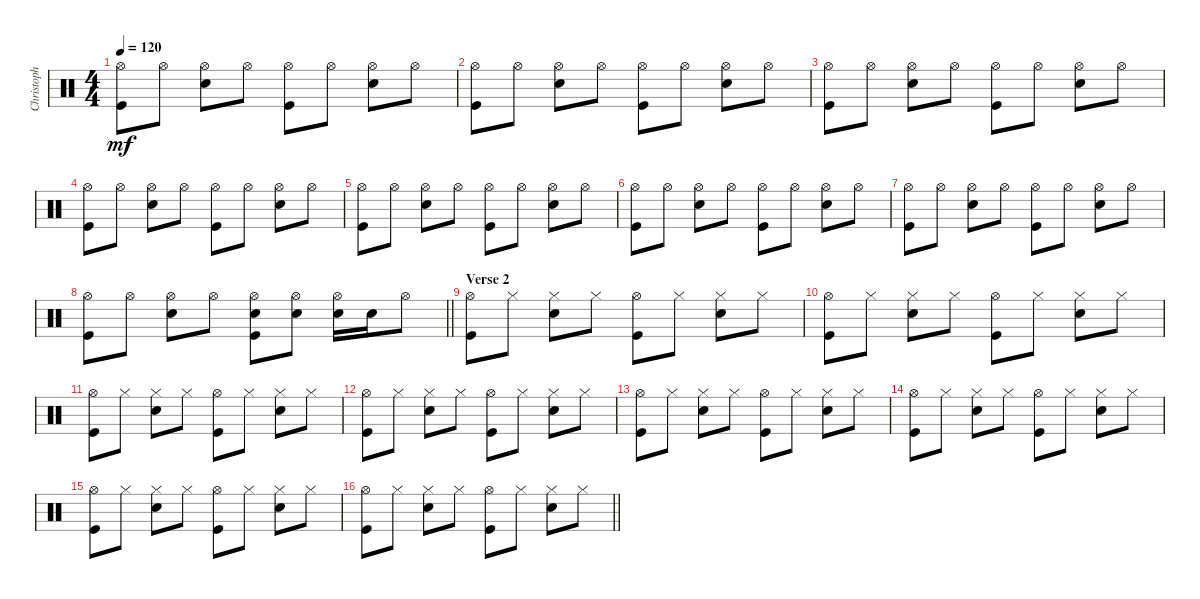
\track ("Christoph Schneider" "Christoph ") {instrument percussion}
\staff {score}
\articulation defaults
\ts (4 4)
\tempo 120
\clef neutral
\ks c
("Kick (hit)" "Hi-Hat (open)").8{dy mf} "Hi-Hat (open)".8 ("Snare (hit) 2" "Hi-Hat (open)").8 "Hi-Hat (open)".8 ("Hi-Hat (open)" "Kick (hit)").8 "Hi-Hat (open)".8 ("Hi-Hat (open)" "Snare (hit) 2").8 "Hi-Hat (open)".8 |
("Kick (hit)" "Hi-Hat (open)").8 "Hi-Hat (open)".8 ("Snare (hit) 2" "Hi-Hat (open)").8 "Hi-Hat (open)".8 ("Hi-Hat (open)" "Kick (hit)").8 "Hi-Hat (open)".8 ("Hi-Hat (open)" "Snare (hit) 2").8 "Hi-Hat (open)".8 |
("Kick (hit)" "Hi-Hat (open)").8 "Hi-Hat (open)".8 ("Snare (hit) 2" "Hi-Hat (open)").8 "Hi-Hat (open)".8 ("Hi-Hat (open)" "Kick (hit)").8 "Hi-Hat (open)".8 ("Hi-Hat (open)" "Snare (hit) 2").8 "Hi-Hat (open)".8 |
("Kick (hit)" "Hi-Hat (open)").8 "Hi-Hat (open)".8 ("Snare (hit) 2" "Hi-Hat (open)").8 "Hi-Hat (open)".8 ("Hi-Hat (open)" "Kick (hit)").8 "Hi-Hat (open)".8 ("Hi-Hat (open)" "Snare (hit) 2").8 "Hi-Hat (open)".8 |
("Kick (hit)" "Hi-Hat (open)").8 "Hi-Hat (open)".8 ("Snare (hit) 2" "Hi-Hat (open)").8 "Hi-Hat (open)".8 ("Hi-Hat (open)" "Kick (hit)").8 "Hi-Hat (open)".8 ("Hi-Hat (open)" "Snare (hit) 2").8 "Hi-Hat (open)".8 |
("Kick (hit)" "Hi-Hat (open)").8 "Hi-Hat (open)".8 ("Snare (hit) 2" "Hi-Hat (open)").8 "Hi-Hat (open)".8 ("Hi-Hat (open)" "Kick (hit)").8 "Hi-Hat (open)".8 ("Hi-Hat (open)" "Snare (hit) 2").8 "Hi-Hat (open)".8 |
("Kick (hit)" "Hi-Hat (open)").8 "Hi-Hat (open)".8 ("Snare (hit) 2" "Hi-Hat (open)").8 "Hi-Hat (open)".8 ("Hi-Hat (open)" "Kick (hit)").8 "Hi-Hat (open)".8 ("Hi-Hat (open)" "Snare (hit) 2").8 "Hi-Hat (open)".8 |
\barLineRight lightlight
("Kick (hit)" "Hi-Hat (open)").8 "Hi-Hat (open)".8 ("Snare (hit) 2" "Hi-Hat (open)").8 "Hi-Hat (open)".8 ("Hi-Hat (open)" "Kick (hit)" "Snare (hit) 2").8 ("Hi-Hat (open)" "Snare (hit) 2").8 ("Hi-Hat (open)" "Snare (hit) 2").16 "Snare (hit) 2".16 "Hi-Hat (open)".8 |
\section ("" "Verse 2")
("Kick (hit)" "Hi-Hat (open)").8 "Hi-Hat (closed)".8 ("Snare (hit) 2" "Hi-Hat (closed)").8 "Hi-Hat (closed)".8 ("Hi-Hat (open)" "Kick (hit)").8 "Hi-Hat (closed)".8 ("Hi-Hat (closed)" "Snare (hit) 2").8 "Hi-Hat (closed)".8 |
("Kick (hit)" "Hi-Hat (open)").8 "Hi-Hat (closed)".8 ("Snare (hit) 2" "Hi-Hat (closed)").8 "Hi-Hat (closed)".8 ("Hi-Hat (open)" "Kick (hit)").8 "Hi-Hat (closed)".8 ("Hi-Hat (closed)" "Snare (hit) 2").8 "Hi-Hat (closed)".8 |
("Kick (hit)" "Hi-Hat (open)").8 "Hi-Hat (closed)".8 ("Snare (hit) 2" "Hi-Hat (closed)").8 "Hi-Hat (closed)".8 ("Hi-Hat (open)" "Kick (hit)").8 "Hi-Hat (closed)".8 ("Hi-Hat (closed)" "Snare (hit) 2").8 "Hi-Hat (closed)".8 |
("Kick (hit)" "Hi-Hat (open)").8 "Hi-Hat (closed)".8 ("Snare (hit) 2" "Hi-Hat (closed)").8 "Hi-Hat (closed)".8 ("Hi-Hat (open)" "Kick (hit)").8 "Hi-Hat (closed)".8 ("Hi-Hat (closed)" "Snare (hit) 2").8 "Hi-Hat (closed)".8 |
("Kick (hit)" "Hi-Hat (open)").8 "Hi-Hat (closed)".8 ("Snare (hit) 2" "Hi-Hat (closed)").8 "Hi-Hat (closed)".8 ("Hi-Hat (open)" "Kick (hit)").8 "Hi-Hat (closed)".8 ("Hi-Hat (closed)" "Snare (hit) 2").8 "Hi-Hat (closed)".8 |
("Kick (hit)" "Hi-Hat (open)").8 "Hi-Hat (closed)".8 ("Snare (hit) 2" "Hi-Hat (closed)").8 "Hi-Hat (closed)".8 ("Hi-Hat (open)" "Kick (hit)").8 "Hi-Hat (closed)".8 ("Hi-Hat (closed)" "Snare (hit) 2").8 "Hi-Hat (closed)".8 |
("Kick (hit)" "Hi-Hat (open)").8 "Hi-Hat (closed)".8 ("Snare (hit) 2" "Hi-Hat (closed)").8 "Hi-Hat (closed)".8 ("Hi-Hat (open)" "Kick (hit)").8 "Hi-Hat (closed)".8 ("Hi-Hat (closed)" "Snare (hit) 2").8 "Hi-Hat (closed)".8 |
\barLineRight lightlight
("Kick (hit)" "Hi-Hat (open)").8 "Hi-Hat (closed)".8 ("Snare (hit) 2" "Hi-Hat (closed)").8 "Hi-Hat (closed)".8 ("Hi-Hat (open)" "Kick (hit)").8 "Hi-Hat (closed)".8 ("Hi-Hat (closed)" "Snare (hit) 2").8 "Hi-Hat (closed)".8
